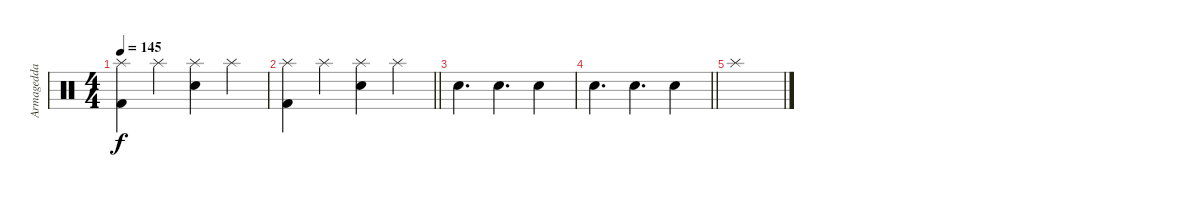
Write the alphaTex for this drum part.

\track ("Armagedda" "Armagedda") {instrument percussion}
\staff {score}
\articulation defaults
\ts (4 4)
\tempo 145
\clef neutral
\ks c
("Splash (hit)" "Kick (hit) 2").4{dy f} "Splash (hit)".4 ("Splash (hit)" "Snare (hit) 2").4 "Splash (hit)".4 |
\barLineRight lightlight
("Splash (hit)" "Kick (hit) 2").4 "Splash (hit)".4 ("Splash (hit)" "Snare (hit) 2").4 "Splash (hit)".4 |
"Snare (hit) 2".4{d} "Snare (hit) 2".4{d} "Snare (hit) 2".4 |
\barLineRight lightlight "Snare (hit) 2".4{d} "Snare (hit) 2".4{d} "Snare (hit) 2".4
|
"Splash (hit)".1
